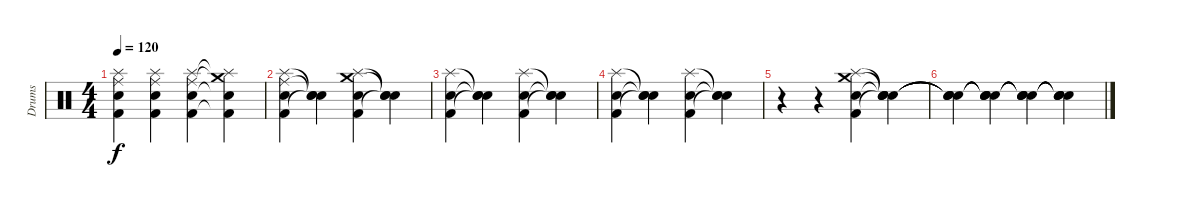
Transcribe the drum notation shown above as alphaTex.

\track ("Drums" "Drums") {instrument percussion}
\staff {score}
\articulation defaults
\ts (4 4)
\tempo 120
\clef neutral
\ks c
("Ride (middle)" "Splash (hit)" "Kick (hit) 2" "Snare (hit) 2").4{dy f} ("Ride (middle)" "Splash (hit)" "Kick (hit) 2" "Snare (hit) 2").4 ("Ride (middle)" "Splash (hit)" "Kick (hit) 2" "Snare (hit) 2").4 ("Crash medium (hit)"{t} "Splash (hit)"{t} "Kick (hit) 2"{t} "Snare (hit)"{t}).4 |
("Ride (middle)" "Splash (hit)" "Kick (hit) 2" "Snare (hit) 2").4 ("Snare (hit)"{t} "Snare (hit)"{t} "Snare (hit)"{t}).4 ("Crash medium (hit)" "Splash (hit)" "Kick (hit) 2" "Snare (hit) 2").4 ("Snare (hit)"{t} "Snare (hit)"{t} "Snare (hit)"{t}).4 |
("Splash (hit)" "Kick (hit) 2" "Snare (hit) 2").4 ("Snare (hit)"{t} "Snare (hit)"{t} "Snare (hit)"{t}).4 ("Splash (hit)" "Kick (hit) 2" "Snare (hit) 2").4 ("Snare (hit)"{t} "Snare (hit)"{t} "Snare (hit)"{t}).4 |
("Splash (hit)" "Kick (hit) 2" "Snare (hit) 2").4 ("Snare (hit)"{t} "Snare (hit)"{t} "Snare (hit)"{t}).4 ("Splash (hit)" "Kick (hit) 2" "Snare (hit) 2").4 ("Snare (hit)"{t} "Snare (hit)"{t} "Snare (hit)"{t}).4 |
r.4 r.4 ("Splash (hit)" "Crash medium (hit)" "Kick (hit) 2" "Snare (hit) 2").4 ("Snare (hit)"{t} "Snare (hit)"{t} "Snare (hit)"{t} "Snare (hit)"{t}).4 |
("Snare (hit)"{t} "Snare (hit)"{t} "Snare (hit)"{t} "Snare (hit)"{t}).4 ("Snare (hit)"{t} "Snare (hit)"{t} "Snare (hit)"{t} "Snare (hit)"{t}).4 ("Snare (hit)"{t} "Snare (hit)"{t} "Snare (hit)"{t} "Snare (hit)"{t}).4 ("Snare (hit)"{t} "Snare (hit)"{t} "Snare (hit)"{t} "Snare (hit)"{t}).4
